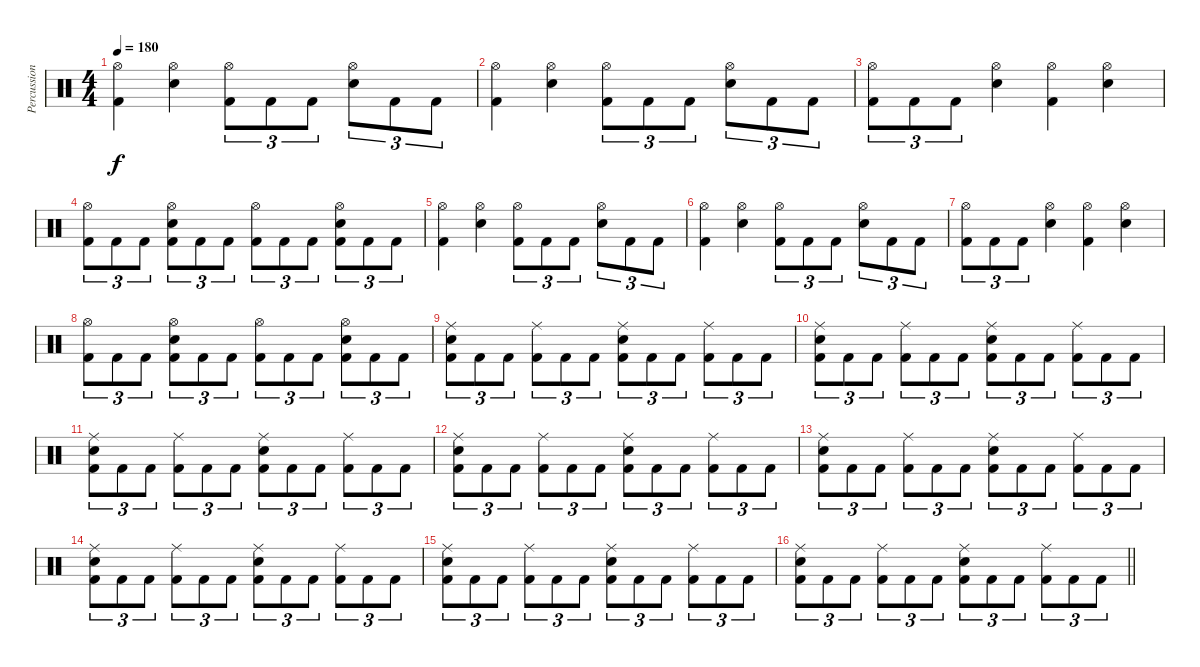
\track ("Percussion" "Percussion") {instrument percussion}
\staff {score}
\articulation defaults
\ts (4 4)
\tempo 180
\clef neutral
\ks c
("Hi-Hat (open)" "Kick (hit) 2").4{dy f} ("Hi-Hat (open)" "Snare (hit) 2").4 ("Hi-Hat (open)" "Kick (hit) 2").8{tu (3 2)} "Kick (hit) 2".8{tu (3 2)} "Kick (hit) 2".8{tu (3 2)} ("Hi-Hat (open)" "Snare (hit) 2").8{tu (3 2)} "Kick (hit) 2".8{tu (3 2)} "Kick (hit) 2".8{tu (3 2)} |
("Hi-Hat (open)" "Kick (hit) 2").4 ("Hi-Hat (open)" "Snare (hit) 2").4 ("Hi-Hat (open)" "Kick (hit) 2").8{tu (3 2)} "Kick (hit) 2".8{tu (3 2)} "Kick (hit) 2".8{tu (3 2)} ("Hi-Hat (open)" "Snare (hit) 2").8{tu (3 2)} "Kick (hit) 2".8{tu (3 2)} "Kick (hit) 2".8{tu (3 2)} |
("Hi-Hat (open)" "Kick (hit) 2").8{tu (3 2)} "Kick (hit) 2".8{tu (3 2)} "Kick (hit) 2".8{tu (3 2)} ("Hi-Hat (open)" "Snare (hit) 2").4 ("Hi-Hat (open)" "Kick (hit) 2").4 ("Hi-Hat (open)" "Snare (hit) 2").4 |
("Hi-Hat (open)" "Kick (hit) 2").8{tu (3 2)} "Kick (hit) 2".8{tu (3 2)} "Kick (hit) 2".8{tu (3 2)} ("Hi-Hat (open)" "Snare (hit) 2" "Kick (hit) 2").8{tu (3 2)} "Kick (hit) 2".8{tu (3 2)} "Kick (hit) 2".8{tu (3 2)} ("Hi-Hat (open)" "Kick (hit) 2").8{tu (3 2)} "Kick (hit) 2".8{tu (3 2)} "Kick (hit) 2".8{tu (3 2)} ("Hi-Hat (open)" "Snare (hit) 2" "Kick (hit) 2").8{tu (3 2)} "Kick (hit) 2".8{tu (3 2)} "Kick (hit) 2".8{tu (3 2)} |
("Hi-Hat (open)" "Kick (hit) 2").4 ("Hi-Hat (open)" "Snare (hit) 2").4 ("Hi-Hat (open)" "Kick (hit) 2").8{tu (3 2)} "Kick (hit) 2".8{tu (3 2)} "Kick (hit) 2".8{tu (3 2)} ("Hi-Hat (open)" "Snare (hit) 2").8{tu (3 2)} "Kick (hit) 2".8{tu (3 2)} "Kick (hit) 2".8{tu (3 2)} |
("Hi-Hat (open)" "Kick (hit) 2").4 ("Hi-Hat (open)" "Snare (hit) 2").4 ("Hi-Hat (open)" "Kick (hit) 2").8{tu (3 2)} "Kick (hit) 2".8{tu (3 2)} "Kick (hit) 2".8{tu (3 2)} ("Hi-Hat (open)" "Snare (hit) 2").8{tu (3 2)} "Kick (hit) 2".8{tu (3 2)} "Kick (hit) 2".8{tu (3 2)} |
("Hi-Hat (open)" "Kick (hit) 2").8{tu (3 2)} "Kick (hit) 2".8{tu (3 2)} "Kick (hit) 2".8{tu (3 2)} ("Hi-Hat (open)" "Snare (hit) 2").4 ("Hi-Hat (open)" "Kick (hit) 2").4 ("Hi-Hat (open)" "Snare (hit) 2").4 |
("Hi-Hat (open)" "Kick (hit) 2").8{tu (3 2)} "Kick (hit) 2".8{tu (3 2)} "Kick (hit) 2".8{tu (3 2)} ("Hi-Hat (open)" "Snare (hit) 2" "Kick (hit) 2").8{tu (3 2)} "Kick (hit) 2".8{tu (3 2)} "Kick (hit) 2".8{tu (3 2)} ("Hi-Hat (open)" "Kick (hit) 2").8{tu (3 2)} "Kick (hit) 2".8{tu (3 2)} "Kick (hit) 2".8{tu (3 2)} ("Hi-Hat (open)" "Snare (hit) 2" "Kick (hit) 2").8{tu (3 2)} "Kick (hit) 2".8{tu (3 2)} "Kick (hit) 2".8{tu (3 2)} |
("Ride (middle)" "Snare (hit) 2" "Kick (hit) 2").8{tu (3 2)} "Kick (hit) 2".8{tu (3 2)} "Kick (hit) 2".8{tu (3 2)} ("Ride (middle)" "Kick (hit) 2").8{tu (3 2)} "Kick (hit) 2".8{tu (3 2)} "Kick (hit) 2".8{tu (3 2)} ("Ride (middle)" "Snare (hit) 2" "Kick (hit) 2").8{tu (3 2)} "Kick (hit) 2".8{tu (3 2)} "Kick (hit) 2".8{tu (3 2)} ("Ride (middle)" "Kick (hit) 2").8{tu (3 2)} "Kick (hit) 2".8{tu (3 2)} "Kick (hit) 2".8{tu (3 2)} |
("Ride (middle)" "Snare (hit) 2" "Kick (hit) 2").8{tu (3 2)} "Kick (hit) 2".8{tu (3 2)} "Kick (hit) 2".8{tu (3 2)} ("Ride (middle)" "Kick (hit) 2").8{tu (3 2)} "Kick (hit) 2".8{tu (3 2)} "Kick (hit) 2".8{tu (3 2)} ("Ride (middle)" "Snare (hit) 2" "Kick (hit) 2").8{tu (3 2)} "Kick (hit) 2".8{tu (3 2)} "Kick (hit) 2".8{tu (3 2)} ("Ride (middle)" "Kick (hit) 2").8{tu (3 2)} "Kick (hit) 2".8{tu (3 2)} "Kick (hit) 2".8{tu (3 2)} |
("Ride (middle)" "Snare (hit) 2" "Kick (hit) 2").8{tu (3 2)} "Kick (hit) 2".8{tu (3 2)} "Kick (hit) 2".8{tu (3 2)} ("Ride (middle)" "Kick (hit) 2").8{tu (3 2)} "Kick (hit) 2".8{tu (3 2)} "Kick (hit) 2".8{tu (3 2)} ("Ride (middle)" "Snare (hit) 2" "Kick (hit) 2").8{tu (3 2)} "Kick (hit) 2".8{tu (3 2)} "Kick (hit) 2".8{tu (3 2)} ("Ride (middle)" "Kick (hit) 2").8{tu (3 2)} "Kick (hit) 2".8{tu (3 2)} "Kick (hit) 2".8{tu (3 2)} |
("Ride (middle)" "Snare (hit) 2" "Kick (hit) 2").8{tu (3 2)} "Kick (hit) 2".8{tu (3 2)} "Kick (hit) 2".8{tu (3 2)} ("Ride (middle)" "Kick (hit) 2").8{tu (3 2)} "Kick (hit) 2".8{tu (3 2)} "Kick (hit) 2".8{tu (3 2)} ("Ride (middle)" "Snare (hit) 2" "Kick (hit) 2").8{tu (3 2)} "Kick (hit) 2".8{tu (3 2)} "Kick (hit) 2".8{tu (3 2)} ("Ride (middle)" "Kick (hit) 2").8{tu (3 2)} "Kick (hit) 2".8{tu (3 2)} "Kick (hit) 2".8{tu (3 2)} |
("Ride (middle)" "Snare (hit) 2" "Kick (hit) 2").8{tu (3 2)} "Kick (hit) 2".8{tu (3 2)} "Kick (hit) 2".8{tu (3 2)} ("Ride (middle)" "Kick (hit) 2").8{tu (3 2)} "Kick (hit) 2".8{tu (3 2)} "Kick (hit) 2".8{tu (3 2)} ("Ride (middle)" "Snare (hit) 2" "Kick (hit) 2").8{tu (3 2)} "Kick (hit) 2".8{tu (3 2)} "Kick (hit) 2".8{tu (3 2)} ("Ride (middle)" "Kick (hit) 2").8{tu (3 2)} "Kick (hit) 2".8{tu (3 2)} "Kick (hit) 2".8{tu (3 2)} |
("Ride (middle)" "Snare (hit) 2" "Kick (hit) 2").8{tu (3 2)} "Kick (hit) 2".8{tu (3 2)} "Kick (hit) 2".8{tu (3 2)} ("Ride (middle)" "Kick (hit) 2").8{tu (3 2)} "Kick (hit) 2".8{tu (3 2)} "Kick (hit) 2".8{tu (3 2)} ("Ride (middle)" "Snare (hit) 2" "Kick (hit) 2").8{tu (3 2)} "Kick (hit) 2".8{tu (3 2)} "Kick (hit) 2".8{tu (3 2)} ("Ride (middle)" "Kick (hit) 2").8{tu (3 2)} "Kick (hit) 2".8{tu (3 2)} "Kick (hit) 2".8{tu (3 2)} |
("Ride (middle)" "Snare (hit) 2" "Kick (hit) 2").8{tu (3 2)} "Kick (hit) 2".8{tu (3 2)} "Kick (hit) 2".8{tu (3 2)} ("Ride (middle)" "Kick (hit) 2").8{tu (3 2)} "Kick (hit) 2".8{tu (3 2)} "Kick (hit) 2".8{tu (3 2)} ("Ride (middle)" "Snare (hit) 2" "Kick (hit) 2").8{tu (3 2)} "Kick (hit) 2".8{tu (3 2)} "Kick (hit) 2".8{tu (3 2)} ("Ride (middle)" "Kick (hit) 2").8{tu (3 2)} "Kick (hit) 2".8{tu (3 2)} "Kick (hit) 2".8{tu (3 2)} |
\barLineRight lightlight
("Ride (middle)" "Snare (hit) 2" "Kick (hit) 2").8{tu (3 2)} "Kick (hit) 2".8{tu (3 2)} "Kick (hit) 2".8{tu (3 2)} ("Ride (middle)" "Kick (hit) 2").8{tu (3 2)} "Kick (hit) 2".8{tu (3 2)} "Kick (hit) 2".8{tu (3 2)} ("Ride (middle)" "Snare (hit) 2" "Kick (hit) 2").8{tu (3 2)} "Kick (hit) 2".8{tu (3 2)} "Kick (hit) 2".8{tu (3 2)} ("Ride (middle)" "Kick (hit) 2").8{tu (3 2)} "Kick (hit) 2".8{tu (3 2)} "Kick (hit) 2".8{tu (3 2)}
